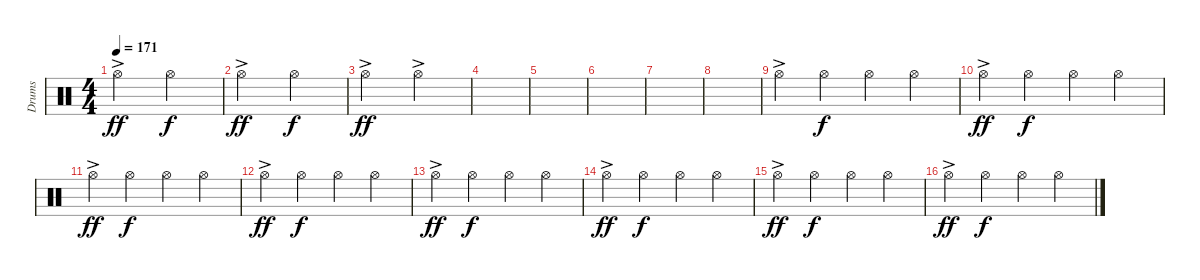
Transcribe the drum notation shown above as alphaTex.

\track ("Drums" "Drums") {instrument percussion}
\staff {score}
\articulation defaults
\ts (4 4)
\tempo 171
\clef neutral
\ks c "Hi-Hat (open)"{ac}.2{dy ff} "Hi-Hat (open)".2{dy f}
|
"Hi-Hat (open)"{ac}.2{dy ff} "Hi-Hat (open)".2{dy f} |
"Hi-Hat (open)"{ac}.2{dy ff} "Hi-Hat (open)"{ac}.2 |
|
|
|
|
|
"Hi-Hat (open)"{ac}.4 "Hi-Hat (open)".4{dy f} "Hi-Hat (open)".4 "Hi-Hat (open)".4 |
"Hi-Hat (open)"{ac}.4{dy ff} "Hi-Hat (open)".4{dy f} "Hi-Hat (open)".4 "Hi-Hat (open)".4 |
"Hi-Hat (open)"{ac}.4{dy ff} "Hi-Hat (open)".4{dy f} "Hi-Hat (open)".4 "Hi-Hat (open)".4 |
"Hi-Hat (open)"{ac}.4{dy ff} "Hi-Hat (open)".4{dy f} "Hi-Hat (open)".4 "Hi-Hat (open)".4 |
"Hi-Hat (open)"{ac}.4{dy ff} "Hi-Hat (open)".4{dy f} "Hi-Hat (open)".4 "Hi-Hat (open)".4 |
"Hi-Hat (open)"{ac}.4{dy ff} "Hi-Hat (open)".4{dy f} "Hi-Hat (open)".4 "Hi-Hat (open)".4 |
"Hi-Hat (open)"{ac}.4{dy ff} "Hi-Hat (open)".4{dy f} "Hi-Hat (open)".4 "Hi-Hat (open)".4 |
"Hi-Hat (open)"{ac}.4{dy ff} "Hi-Hat (open)".4{dy f} "Hi-Hat (open)".4 "Hi-Hat (open)".4
